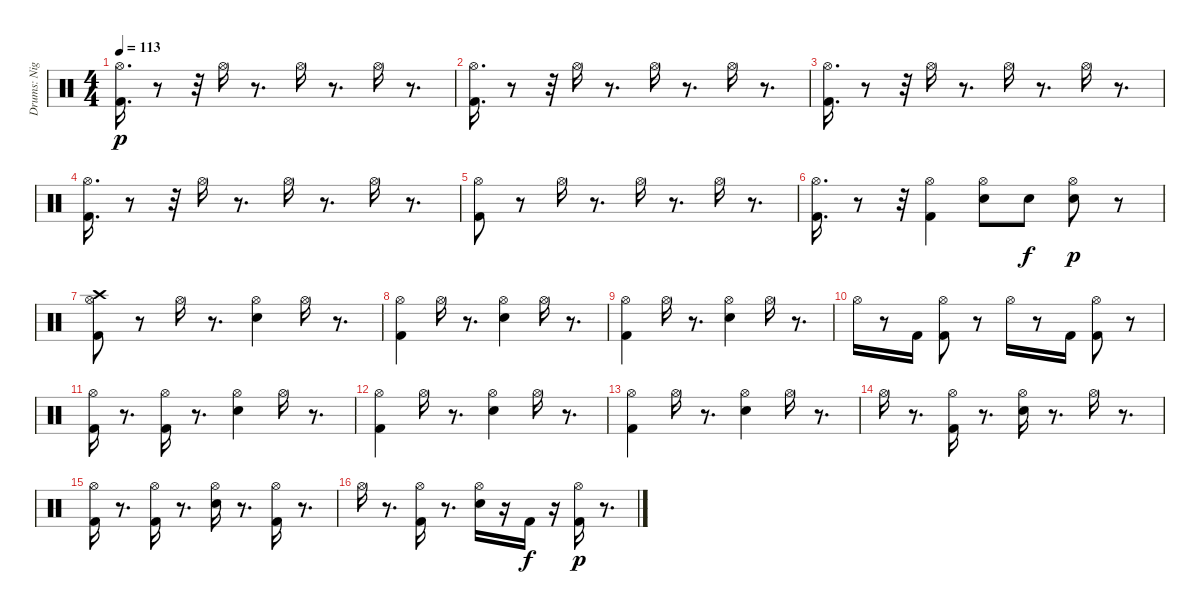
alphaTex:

\track ("Drums: Nigel Olsson" "Drums: Nig") {instrument percussion}
\staff {score}
\articulation defaults
\ts (4 4)
\tempo 113
\clef neutral
\ks c
("Hi-Hat (open)" "Kick (hit) 2").16{d dy p} r.8 r.32 "Hi-Hat (open)".16 r.8{d} "Hi-Hat (open)".16 r.8{d} "Hi-Hat (open)".16 r.8{d} |
("Hi-Hat (open)" "Kick (hit) 2").16{d} r.8 r.32 "Hi-Hat (open)".16 r.8{d} "Hi-Hat (open)".16 r.8{d} "Hi-Hat (open)".16 r.8{d} |
("Hi-Hat (open)" "Kick (hit) 2").16{d} r.8 r.32 "Hi-Hat (open)".16 r.8{d} "Hi-Hat (open)".16 r.8{d} "Hi-Hat (open)".16 r.8{d} |
("Hi-Hat (open)" "Kick (hit) 2").16{d} r.8 r.32 "Hi-Hat (open)".16 r.8{d} "Hi-Hat (open)".16 r.8{d} "Hi-Hat (open)".16 r.8{d} |
("Hi-Hat (open)" "Kick (hit) 2").8 r.8 "Hi-Hat (open)".16 r.8{d} "Hi-Hat (open)".16 r.8{d} "Hi-Hat (open)".16 r.8{d} |
("Hi-Hat (open)" "Kick (hit) 2").16{d} r.8 r.32 ("Hi-Hat (open)" "Kick (hit) 2").4 ("Hi-Hat (open)" "Snare (hit) 2").8 "Snare (hit) 2".8{dy f} ("Hi-Hat (open)" "Snare (hit) 2").8{dy p} r.8 |
("Hi-Hat (open)" "Crash high (hit)" "Kick (hit) 2").8 r.8 "Hi-Hat (open)".16 r.8{d} ("Hi-Hat (open)" "Snare (hit) 2").4 "Hi-Hat (open)".16 r.8{d} |
("Hi-Hat (open)" "Kick (hit) 2").4 "Hi-Hat (open)".16 r.8{d} ("Hi-Hat (open)" "Snare (hit) 2").4 "Hi-Hat (open)".16 r.8{d} |
("Kick (hit) 2" "Hi-Hat (open)").4 "Hi-Hat (open)".16 r.8{d} ("Snare (hit) 2" "Hi-Hat (open)").4 "Hi-Hat (open)".16 r.8{d} |
"Hi-Hat (open)".16 r.8 "Kick (hit) 2".16 ("Hi-Hat (open)" "Kick (hit) 2").8 r.8 "Hi-Hat (open)".16 r.8 "Kick (hit) 2".16 ("Kick (hit) 2" "Hi-Hat (open)").8 r.8 |
("Kick (hit) 2" "Hi-Hat (open)").16 r.8{d} ("Kick (hit) 2" "Hi-Hat (open)").16 r.8{d} ("Snare (hit) 2" "Hi-Hat (open)").4 "Hi-Hat (open)".16 r.8{d} |
("Kick (hit) 2" "Hi-Hat (open)").4 "Hi-Hat (open)".16 r.8{d} ("Snare (hit) 2" "Hi-Hat (open)").4 "Hi-Hat (open)".16 r.8{d} |
("Kick (hit) 2" "Hi-Hat (open)").4 "Hi-Hat (open)".16 r.8{d} ("Snare (hit) 2" "Hi-Hat (open)").4 "Hi-Hat (open)".16 r.8{d} |
"Hi-Hat (open)".16 r.8{d} ("Kick (hit) 2" "Hi-Hat (open)").16 r.8{d} ("Snare (hit) 2" "Hi-Hat (open)").16 r.8{d} "Hi-Hat (open)".16 r.8{d} |
("Kick (hit) 2" "Hi-Hat (open)").16 r.8{d} ("Kick (hit) 2" "Hi-Hat (open)").16 r.8{d} ("Snare (hit) 2" "Hi-Hat (open)").16 r.8{d} ("Kick (hit) 2" "Hi-Hat (open)").16 r.8{d} |
"Hi-Hat (open)".16 r.8{d} ("Kick (hit) 2" "Hi-Hat (open)").16 r.8{d} ("Snare (hit) 2" "Hi-Hat (open)").16 r.16 "Kick (hit) 2".16{dy f} r.16 ("Kick (hit) 2" "Hi-Hat (open)").16{dy p} r.8{d}
